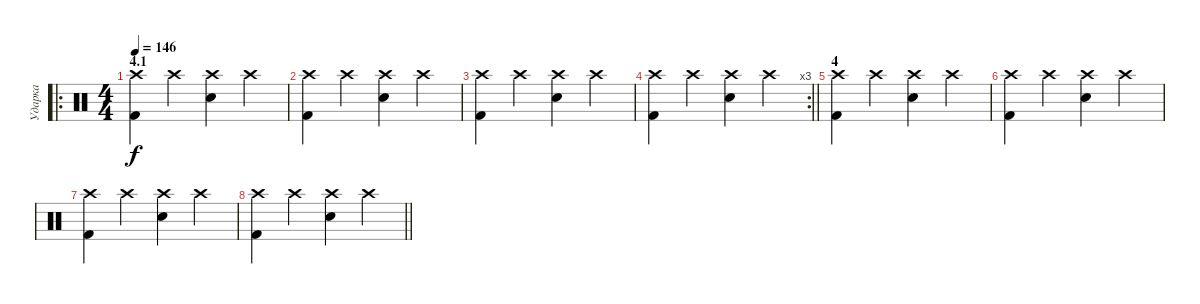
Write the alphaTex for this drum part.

\track ("Ударка" "Ударка") {instrument percussion}
\staff {score}
\articulation defaults
\ro
\ts (4 4)
\section ("" "4.1")
\tempo 146
\clef neutral
\ks c
("Crash high (hit)" "Kick (hit) 2").4{dy f} "Crash high (hit)".4 ("Crash high (hit)" "Electric Snare (hit)").4 "Crash high (hit)".4 |
("Crash high (hit)" "Kick (hit) 2").4 "Crash high (hit)".4 ("Crash high (hit)" "Electric Snare (hit)").4 "Crash high (hit)".4 |
("Crash high (hit)" "Kick (hit) 2").4 "Crash high (hit)".4 ("Crash high (hit)" "Electric Snare (hit)").4 "Crash high (hit)".4 |
\rc 3
\barLineRight lightlight
("Crash high (hit)" "Kick (hit) 2").4 "Crash high (hit)".4 ("Crash high (hit)" "Electric Snare (hit)").4 "Crash high (hit)".4 |
\section ("" "4")
("Crash high (hit)" "Kick (hit) 2").4 "Crash high (hit)".4 ("Crash high (hit)" "Electric Snare (hit)").4 "Crash high (hit)".4 |
("Crash high (hit)" "Kick (hit) 2").4 "Crash high (hit)".4 ("Crash high (hit)" "Electric Snare (hit)").4 "Crash high (hit)".4 |
("Crash high (hit)" "Kick (hit) 2").4 "Crash high (hit)".4 ("Crash high (hit)" "Electric Snare (hit)").4 "Crash high (hit)".4 |
\barLineRight lightlight
("Crash high (hit)" "Kick (hit) 2").4 "Crash high (hit)".4 ("Crash high (hit)" "Electric Snare (hit)").4 "Crash high (hit)".4
